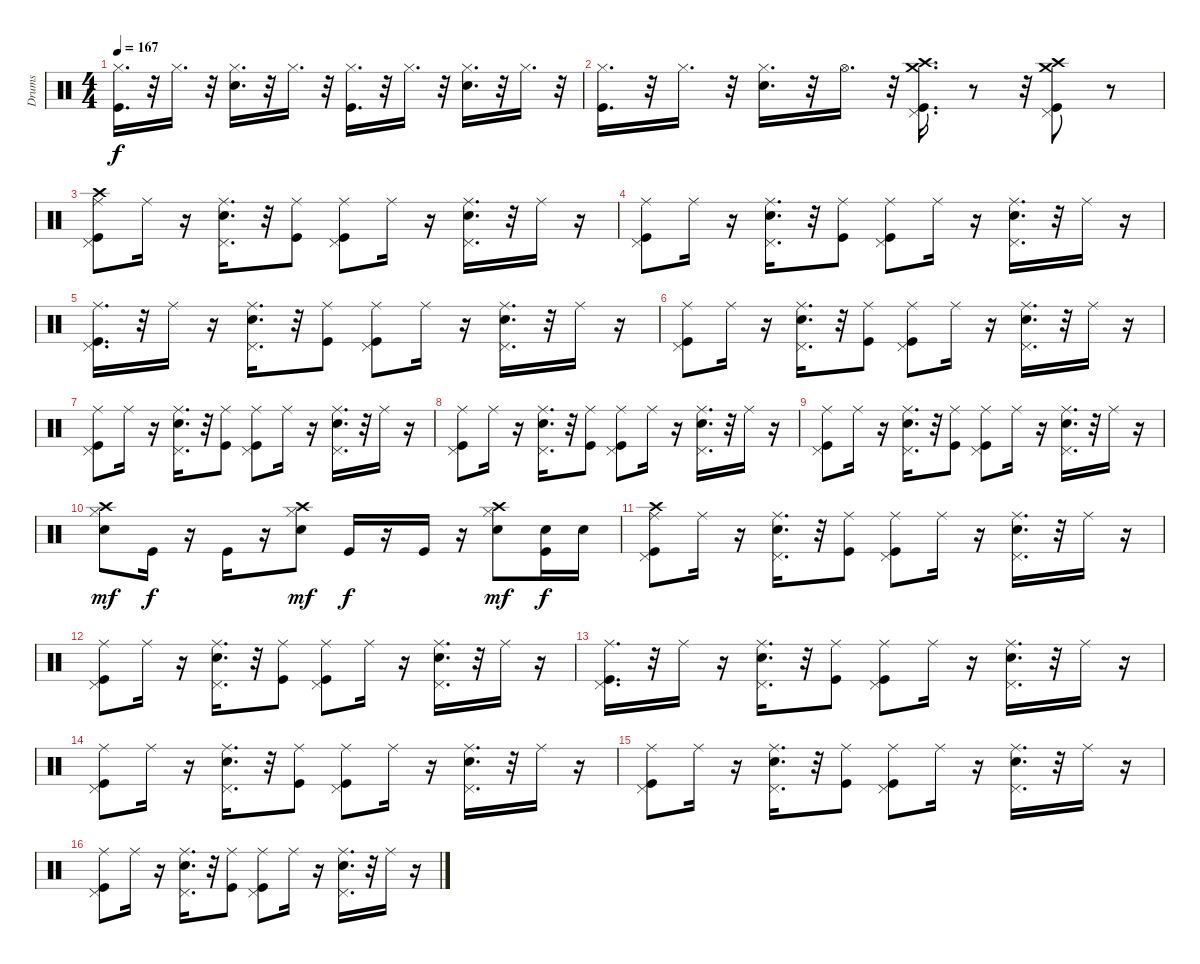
\track ("Drums" "Drums") {instrument percussion}
\staff {score}
\articulation defaults
\ts (4 4)
\tempo 167
\clef neutral
\ks c
("Hi-Hat (closed)" "Kick (hit)").16{d dy f} r.32 "Hi-Hat (closed)".16{d} r.32 ("Hi-Hat (closed)" "Electric Snare (hit)").16{d} r.32 "Hi-Hat (closed)".16{d} r.32 ("Hi-Hat (closed)" "Kick (hit)").16{d} r.32 "Hi-Hat (closed)".16{d} r.32 ("Hi-Hat (closed)" "Electric Snare (hit)").16{d} r.32 "Hi-Hat (closed)".16{d} r.32 |
("Hi-Hat (closed)" "Kick (hit)").16{d} r.32 "Hi-Hat (closed)".16{d} r.32 ("Hi-Hat (closed)" "Electric Snare (hit)").16{d} r.32 "Hi-Hat (open)".16{d} r.32 ("Kick (hit)" "Crash medium (hit)" "Pedal Hi-Hat (hit)" "Crash high (hit)").16{d} r.8 r.32 ("Crash high (hit)" "Crash medium (hit)" "Pedal Hi-Hat (hit)" "Kick (hit)").8 r.8 |
("Kick (hit)" "Ride (middle)" "Pedal Hi-Hat (hit)" "Crash high (hit)").8 "Ride (middle)".16 r.16 ("Pedal Hi-Hat (hit)" "Electric Snare (hit)" "Ride (middle)").16{d} r.32 ("Ride (middle)" "Kick (hit)").8 ("Pedal Hi-Hat (hit)" "Kick (hit)" "Ride (middle)").8 "Ride (middle)".16 r.16 ("Pedal Hi-Hat (hit)" "Electric Snare (hit)" "Ride (middle)").16{d} r.32 "Ride (middle)".16 r.16 |
("Ride (middle)" "Kick (hit)" "Pedal Hi-Hat (hit)").8 "Ride (middle)".16 r.16 ("Electric Snare (hit)" "Ride (middle)" "Pedal Hi-Hat (hit)").16{d} r.32 ("Ride (middle)" "Kick (hit)").8 ("Pedal Hi-Hat (hit)" "Ride (middle)" "Kick (hit)").8 "Ride (middle)".16 r.16 ("Pedal Hi-Hat (hit)" "Ride (middle)" "Electric Snare (hit)").16{d} r.32 "Ride (middle)".16 r.16 |
("Ride (middle)" "Pedal Hi-Hat (hit)" "Kick (hit)").16{d} r.32 "Ride (middle)".16 r.16 ("Ride (middle)" "Electric Snare (hit)" "Pedal Hi-Hat (hit)").16{d} r.32 ("Ride (middle)" "Kick (hit)").8 ("Kick (hit)" "Pedal Hi-Hat (hit)" "Ride (middle)").8 "Ride (middle)".16 r.16 ("Pedal Hi-Hat (hit)" "Electric Snare (hit)" "Ride (middle)").16{d} r.32 "Ride (middle)".16 r.16 |
("Kick (hit)" "Ride (middle)" "Pedal Hi-Hat (hit)").8 "Ride (middle)".16 r.16 ("Electric Snare (hit)" "Ride (middle)" "Pedal Hi-Hat (hit)").16{d} r.32 ("Kick (hit)" "Ride (middle)").8 ("Ride (middle)" "Kick (hit)" "Pedal Hi-Hat (hit)").8 "Ride (middle)".16 r.16 ("Electric Snare (hit)" "Pedal Hi-Hat (hit)" "Ride (middle)").16{d} r.32 "Ride (middle)".16 r.16 |
("Kick (hit)" "Ride (middle)" "Pedal Hi-Hat (hit)").8 "Ride (middle)".16 r.16 ("Electric Snare (hit)" "Ride (middle)" "Pedal Hi-Hat (hit)").16{d} r.32 ("Kick (hit)" "Ride (middle)").8 ("Ride (middle)" "Kick (hit)" "Pedal Hi-Hat (hit)").8 "Ride (middle)".16 r.16 ("Pedal Hi-Hat (hit)" "Electric Snare (hit)" "Ride (middle)").16{d} r.32 "Ride (middle)".16 r.16 |
("Ride (middle)" "Pedal Hi-Hat (hit)" "Kick (hit)").8 "Ride (middle)".16 r.16 ("Electric Snare (hit)" "Pedal Hi-Hat (hit)" "Ride (middle)").16{d} r.32 ("Kick (hit)" "Ride (middle)").8 ("Pedal Hi-Hat (hit)" "Kick (hit)" "Ride (middle)").8 "Ride (middle)".16 r.16 ("Pedal Hi-Hat (hit)" "Electric Snare (hit)" "Ride (middle)").16{d} r.32 "Ride (middle)".16 r.16 |
("Kick (hit)" "Pedal Hi-Hat (hit)" "Ride (middle)").8 "Ride (middle)".16 r.16 ("Electric Snare (hit)" "Pedal Hi-Hat (hit)" "Ride (middle)").16{d} r.32 ("Ride (middle)" "Kick (hit)").8 ("Pedal Hi-Hat (hit)" "Kick (hit)" "Ride (middle)").8 "Ride (middle)".16 r.16 ("Pedal Hi-Hat (hit)" "Electric Snare (hit)" "Ride (middle)").16{d} r.32 "Ride (middle)".16 r.16 |
("Electric Snare (hit)" "Hi-Hat (closed)" "Crash high (hit)").8{dy mf} "Kick (hit)".16{dy f} r.16 "Kick (hit)".16 r.16 ("Crash high (hit)" "Hi-Hat (closed)" "Electric Snare (hit)").8{dy mf} "Kick (hit)".16{dy f} r.16 "Kick (hit)".16 r.16 ("Crash high (hit)" "Hi-Hat (closed)" "Electric Snare (hit)").8{dy mf} ("Electric Snare (hit)" "Kick (hit)").16{dy f} "Electric Snare (hit)".16 |
("Pedal Hi-Hat (hit)" "Kick (hit)" "Crash high (hit)" "Ride (middle)").8 "Ride (middle)".16 r.16 ("Electric Snare (hit)" "Pedal Hi-Hat (hit)" "Ride (middle)").16{d} r.32 ("Ride (middle)" "Kick (hit)").8 ("Pedal Hi-Hat (hit)" "Kick (hit)" "Ride (middle)").8 "Ride (middle)".16 r.16 ("Pedal Hi-Hat (hit)" "Electric Snare (hit)" "Ride (middle)").16{d} r.32 "Ride (middle)".16 r.16 |
("Pedal Hi-Hat (hit)" "Kick (hit)" "Ride (middle)").8 "Ride (middle)".16 r.16 ("Electric Snare (hit)" "Ride (middle)" "Pedal Hi-Hat (hit)").16{d} r.32 ("Ride (middle)" "Kick (hit)").8 ("Pedal Hi-Hat (hit)" "Ride (middle)" "Kick (hit)").8 "Ride (middle)".16 r.16 ("Ride (middle)" "Pedal Hi-Hat (hit)" "Electric Snare (hit)").16{d} r.32 "Ride (middle)".16 r.16 |
("Pedal Hi-Hat (hit)" "Kick (hit)" "Ride (middle)").16{d} r.32 "Ride (middle)".16 r.16 ("Electric Snare (hit)" "Pedal Hi-Hat (hit)" "Ride (middle)").16{d} r.32 ("Ride (middle)" "Kick (hit)").8 ("Pedal Hi-Hat (hit)" "Kick (hit)" "Ride (middle)").8 "Ride (middle)".16 r.16 ("Electric Snare (hit)" "Ride (middle)" "Pedal Hi-Hat (hit)").16{d} r.32 "Ride (middle)".16 r.16 |
("Kick (hit)" "Ride (middle)" "Pedal Hi-Hat (hit)").8 "Ride (middle)".16 r.16 ("Ride (middle)" "Pedal Hi-Hat (hit)" "Electric Snare (hit)").16{d} r.32 ("Ride (middle)" "Kick (hit)").8 ("Pedal Hi-Hat (hit)" "Kick (hit)" "Ride (middle)").8 "Ride (middle)".16 r.16 ("Pedal Hi-Hat (hit)" "Ride (middle)" "Electric Snare (hit)").16{d} r.32 "Ride (middle)".16 r.16 |
("Pedal Hi-Hat (hit)" "Ride (middle)" "Kick (hit)").8 "Ride (middle)".16 r.16 ("Pedal Hi-Hat (hit)" "Ride (middle)" "Electric Snare (hit)").16{d} r.32 ("Ride (middle)" "Kick (hit)").8 ("Pedal Hi-Hat (hit)" "Ride (middle)" "Kick (hit)").8 "Ride (middle)".16 r.16 ("Pedal Hi-Hat (hit)" "Ride (middle)" "Electric Snare (hit)").16{d} r.32 "Ride (middle)".16 r.16 |
("Pedal Hi-Hat (hit)" "Ride (middle)" "Kick (hit)").8 "Ride (middle)".16 r.16 ("Ride (middle)" "Pedal Hi-Hat (hit)" "Electric Snare (hit)").16{d} r.32 ("Kick (hit)" "Ride (middle)").8 ("Ride (middle)" "Kick (hit)" "Pedal Hi-Hat (hit)").8 "Ride (middle)".16 r.16 ("Ride (middle)" "Electric Snare (hit)" "Pedal Hi-Hat (hit)").16{d} r.32 "Ride (middle)".16 r.16
